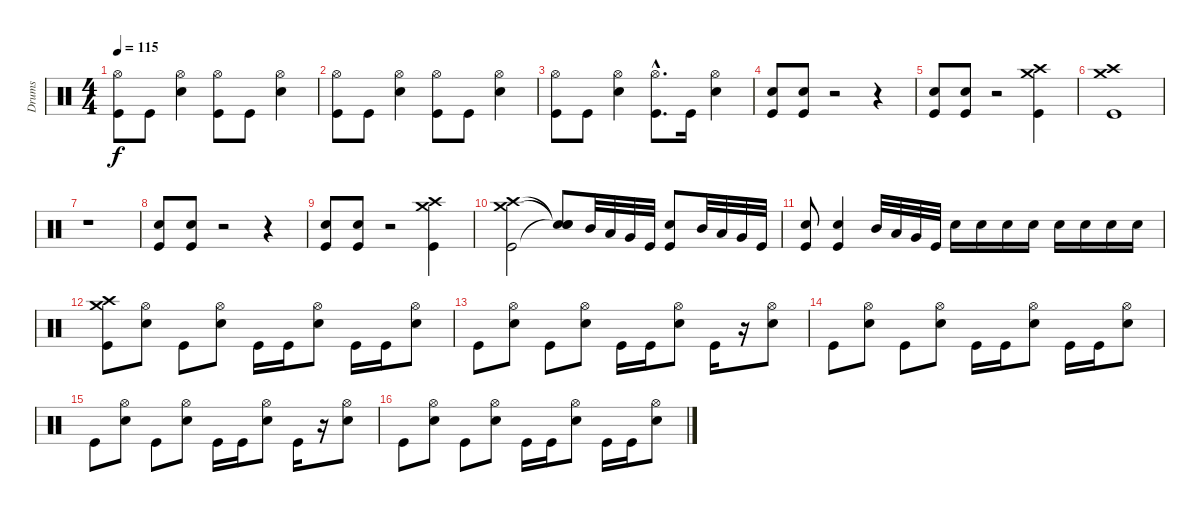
\track ("Drums" "Drums") {instrument percussion}
\staff {score}
\articulation defaults
\ts (4 4)
\tempo 115
\clef neutral
\ks c
("Kick (hit)" "Hi-Hat (open)").8{dy f} "Kick (hit)".8 ("Electric Snare (hit)" "Hi-Hat (open)").4 ("Kick (hit)" "Hi-Hat (open)").8 "Kick (hit)".8 ("Electric Snare (hit)" "Hi-Hat (open)").4 |
("Kick (hit)" "Hi-Hat (open)").8 "Kick (hit)".8 ("Electric Snare (hit)" "Hi-Hat (open)").4 ("Kick (hit)" "Hi-Hat (open)").8 "Kick (hit)".8 ("Electric Snare (hit)" "Hi-Hat (open)").4 |
("Kick (hit)" "Hi-Hat (open)").8 "Kick (hit)".8 ("Electric Snare (hit)" "Hi-Hat (open)").4 ("Kick (hit)"{hac} "Hi-Hat (open)"{hac}).8{d} "Kick (hit)".16 ("Electric Snare (hit)" "Hi-Hat (open)").4 |
("Electric Snare (hit)" "Kick (hit)").8 ("Electric Snare (hit)" "Kick (hit)").8 r.2 r.4 |
("Electric Snare (hit)" "Kick (hit)").8 ("Electric Snare (hit)" "Kick (hit)").8 r.2 ("Kick (hit)" "Crash medium (hit)" "Crash high (hit)").4 |
("Crash high (hit)" "Crash medium (hit)" "Kick (hit)").1 |
r.1 |
("Electric Snare (hit)" "Kick (hit)").8 ("Electric Snare (hit)" "Kick (hit)").8 r.2 r.4 |
("Electric Snare (hit)" "Kick (hit)").8 ("Electric Snare (hit)" "Kick (hit)").8 r.2 ("Kick (hit)" "Crash medium (hit)" "Crash high (hit)").4 |
("Crash high (hit)" "Crash medium (hit)" "Kick (hit)").2 ("Snare (hit)"{t} "Snare (hit)"{t} "Snare (hit)"{t}).8 "Mid Tom (hit)".32 "Low Tom (hit)".32 "Very Low Tom (hit)".32 "Kick (hit)".32 ("Kick (hit)" "Electric Snare (hit)").8 "Mid Tom (hit)".32 "Low Tom (hit)".32 "Very Low Tom (hit)".32 "Kick (hit)".32 |
("Electric Snare (hit)" "Kick (hit)").8 ("Electric Snare (hit)" "Kick (hit)").4 "Mid Tom (hit)".32 "Low Tom (hit)".32 "Very Low Tom (hit)".32 "Kick (hit)".32 "Electric Snare (hit)".16 "Electric Snare (hit)".16 "Electric Snare (hit)".16 "Electric Snare (hit)".16 "Electric Snare (hit)".16 "Electric Snare (hit)".16 "Electric Snare (hit)".16 "Electric Snare (hit)".16 |
("Kick (hit)" "Crash high (hit)" "Crash medium (hit)").8 ("Electric Snare (hit)" "Hi-Hat (open)").8 "Kick (hit)".8 ("Electric Snare (hit)" "Hi-Hat (open)").8 "Kick (hit)".16 "Kick (hit)".16 ("Electric Snare (hit)" "Hi-Hat (open)").8 "Kick (hit)".16 "Kick (hit)".16 ("Electric Snare (hit)" "Hi-Hat (open)").8 |
"Kick (hit)".8 ("Electric Snare (hit)" "Hi-Hat (open)").8 "Kick (hit)".8 ("Electric Snare (hit)" "Hi-Hat (open)").8 "Kick (hit)".16 "Kick (hit)".16 ("Electric Snare (hit)" "Hi-Hat (open)").8 "Kick (hit)".16 r.16 ("Electric Snare (hit)" "Hi-Hat (open)").8 |
"Kick (hit)".8 ("Electric Snare (hit)" "Hi-Hat (open)").8 "Kick (hit)".8 ("Electric Snare (hit)" "Hi-Hat (open)").8 "Kick (hit)".16 "Kick (hit)".16 ("Electric Snare (hit)" "Hi-Hat (open)").8 "Kick (hit)".16 "Kick (hit)".16 ("Electric Snare (hit)" "Hi-Hat (open)").8 |
"Kick (hit)".8 ("Electric Snare (hit)" "Hi-Hat (open)").8 "Kick (hit)".8 ("Electric Snare (hit)" "Hi-Hat (open)").8 "Kick (hit)".16 "Kick (hit)".16 ("Electric Snare (hit)" "Hi-Hat (open)").8 "Kick (hit)".16 r.16 ("Electric Snare (hit)" "Hi-Hat (open)").8 |
"Kick (hit)".8 ("Electric Snare (hit)" "Hi-Hat (open)").8 "Kick (hit)".8 ("Electric Snare (hit)" "Hi-Hat (open)").8 "Kick (hit)".16 "Kick (hit)".16 ("Electric Snare (hit)" "Hi-Hat (open)").8 "Kick (hit)".16 "Kick (hit)".16 ("Electric Snare (hit)" "Hi-Hat (open)").8
